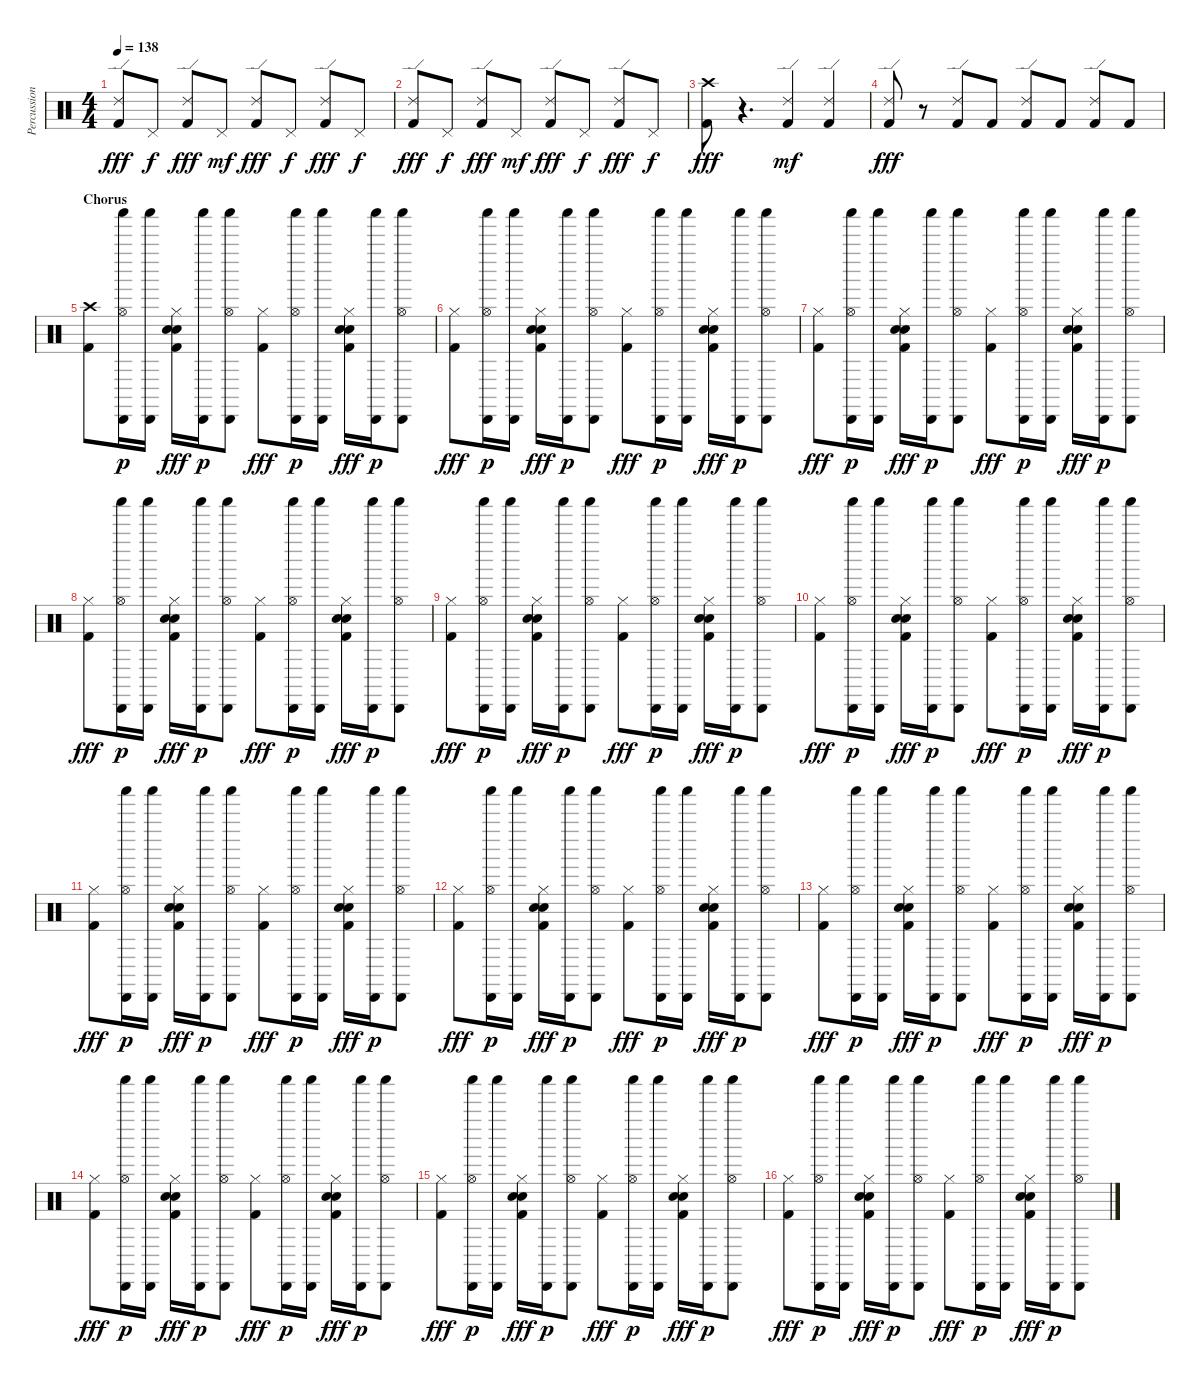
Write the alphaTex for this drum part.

\track ("Percussion" "Percussion") {instrument percussion}
\staff {score}
\articulation defaults
\ts (4 4)
\tempo 138
\clef neutral
\ks c
("Ride (edge) 2" "Kick (hit) 2").8{dy fff} "Pedal Hi-Hat (hit)".8{dy f} ("Ride (edge) 2" "Kick (hit) 2").8{dy fff} "Pedal Hi-Hat (hit)".8{dy mf} ("Ride (edge) 2" "Kick (hit) 2").8{dy fff} "Pedal Hi-Hat (hit)".8{dy f} ("Ride (edge) 2" "Kick (hit) 2").8{dy fff} "Pedal Hi-Hat (hit)".8{dy f} |
("Ride (edge) 2" "Kick (hit) 2").8{dy fff} "Pedal Hi-Hat (hit)".8{dy f} ("Ride (edge) 2" "Kick (hit) 2").8{dy fff} "Pedal Hi-Hat (hit)".8{dy mf} ("Ride (edge) 2" "Kick (hit) 2").8{dy fff} "Pedal Hi-Hat (hit)".8{dy f} ("Ride (edge) 2" "Kick (hit) 2").8{dy fff} "Pedal Hi-Hat (hit)".8{dy f} |
("Kick (hit) 2" "Crash high (hit)").8{dy fff} r.4{d} ("Kick (hit) 2" "Ride (edge) 2").4{dy mf} ("Kick (hit) 2" "Ride (edge) 2").4 |
("Ride (edge) 2" "Kick (hit) 2").8{dy fff} r.8 ("Ride (edge) 2" "Kick (hit) 2").8 "Kick (hit) 2".8 ("Ride (edge) 2" "Kick (hit) 2").8 "Kick (hit) 2".8 ("Ride (edge) 2" "Kick (hit) 2").8 "Kick (hit) 2".8 |
\section ("" "Chorus")
("Crash high (hit)" "Kick (hit) 2").8 ("Cabasa (hit)" "Hi-Hat (open)" "Shaker (hit)").16{dy p} ("Cabasa (hit)" "Shaker (hit)").16 ("Hi-Hat (closed)" "Snare (hit) 2" "Hand Clap (hit)" "Kick (hit) 2").16{dy fff} ("Cabasa (hit)" "Shaker (hit)").16{dy p} ("Cabasa (hit)" "Hi-Hat (open)" "Shaker (hit)").8 ("Hi-Hat (closed)" "Kick (hit) 2").8{dy fff} ("Cabasa (hit)" "Hi-Hat (open)" "Shaker (hit)").16{dy p} ("Cabasa (hit)" "Shaker (hit)").16 ("Hi-Hat (closed)" "Snare (hit) 2" "Hand Clap (hit)" "Kick (hit) 2").16{dy fff} ("Cabasa (hit)" "Shaker (hit)").16{dy p} ("Cabasa (hit)" "Hi-Hat (open)" "Shaker (hit)").8 |
("Hi-Hat (closed)" "Kick (hit) 2").8{dy fff} ("Cabasa (hit)" "Hi-Hat (open)" "Shaker (hit)").16{dy p} ("Cabasa (hit)" "Shaker (hit)").16 ("Hi-Hat (closed)" "Snare (hit) 2" "Hand Clap (hit)" "Kick (hit) 2").16{dy fff} ("Cabasa (hit)" "Shaker (hit)").16{dy p} ("Cabasa (hit)" "Hi-Hat (open)" "Shaker (hit)").8 ("Hi-Hat (closed)" "Kick (hit) 2").8{dy fff} ("Cabasa (hit)" "Hi-Hat (open)" "Shaker (hit)").16{dy p} ("Cabasa (hit)" "Shaker (hit)").16 ("Hi-Hat (closed)" "Snare (hit) 2" "Hand Clap (hit)" "Kick (hit) 2").16{dy fff} ("Cabasa (hit)" "Shaker (hit)").16{dy p} ("Cabasa (hit)" "Hi-Hat (open)" "Shaker (hit)").8 |
("Hi-Hat (closed)" "Kick (hit) 2").8{dy fff} ("Cabasa (hit)" "Hi-Hat (open)" "Shaker (hit)").16{dy p} ("Cabasa (hit)" "Shaker (hit)").16 ("Hi-Hat (closed)" "Snare (hit) 2" "Hand Clap (hit)" "Kick (hit) 2").16{dy fff} ("Cabasa (hit)" "Shaker (hit)").16{dy p} ("Cabasa (hit)" "Hi-Hat (open)" "Shaker (hit)").8 ("Hi-Hat (closed)" "Kick (hit) 2").8{dy fff} ("Cabasa (hit)" "Hi-Hat (open)" "Shaker (hit)").16{dy p} ("Cabasa (hit)" "Shaker (hit)").16 ("Hi-Hat (closed)" "Snare (hit) 2" "Hand Clap (hit)" "Kick (hit) 2").16{dy fff} ("Cabasa (hit)" "Shaker (hit)").16{dy p} ("Cabasa (hit)" "Hi-Hat (open)" "Shaker (hit)").8 |
("Hi-Hat (closed)" "Kick (hit) 2").8{dy fff} ("Cabasa (hit)" "Hi-Hat (open)" "Shaker (hit)").16{dy p} ("Cabasa (hit)" "Shaker (hit)").16 ("Hi-Hat (closed)" "Snare (hit) 2" "Hand Clap (hit)" "Kick (hit) 2").16{dy fff} ("Cabasa (hit)" "Shaker (hit)").16{dy p} ("Cabasa (hit)" "Hi-Hat (open)" "Shaker (hit)").8 ("Hi-Hat (closed)" "Kick (hit) 2").8{dy fff} ("Cabasa (hit)" "Hi-Hat (open)" "Shaker (hit)").16{dy p} ("Cabasa (hit)" "Shaker (hit)").16 ("Hi-Hat (closed)" "Snare (hit) 2" "Hand Clap (hit)" "Kick (hit) 2").16{dy fff} ("Cabasa (hit)" "Shaker (hit)").16{dy p} ("Cabasa (hit)" "Hi-Hat (open)" "Shaker (hit)").8 |
("Hi-Hat (closed)" "Kick (hit) 2").8{dy fff} ("Cabasa (hit)" "Hi-Hat (open)" "Shaker (hit)").16{dy p} ("Cabasa (hit)" "Shaker (hit)").16 ("Hi-Hat (closed)" "Snare (hit) 2" "Hand Clap (hit)" "Kick (hit) 2").16{dy fff} ("Cabasa (hit)" "Shaker (hit)").16{dy p} ("Cabasa (hit)" "Hi-Hat (open)" "Shaker (hit)").8 ("Hi-Hat (closed)" "Kick (hit) 2").8{dy fff} ("Cabasa (hit)" "Hi-Hat (open)" "Shaker (hit)").16{dy p} ("Cabasa (hit)" "Shaker (hit)").16 ("Hi-Hat (closed)" "Snare (hit) 2" "Hand Clap (hit)" "Kick (hit) 2").16{dy fff} ("Cabasa (hit)" "Shaker (hit)").16{dy p} ("Cabasa (hit)" "Hi-Hat (open)" "Shaker (hit)").8 |
("Hi-Hat (closed)" "Kick (hit) 2").8{dy fff} ("Cabasa (hit)" "Hi-Hat (open)" "Shaker (hit)").16{dy p} ("Cabasa (hit)" "Shaker (hit)").16 ("Hi-Hat (closed)" "Snare (hit) 2" "Hand Clap (hit)" "Kick (hit) 2").16{dy fff} ("Cabasa (hit)" "Shaker (hit)").16{dy p} ("Cabasa (hit)" "Hi-Hat (open)" "Shaker (hit)").8 ("Hi-Hat (closed)" "Kick (hit) 2").8{dy fff} ("Cabasa (hit)" "Hi-Hat (open)" "Shaker (hit)").16{dy p} ("Cabasa (hit)" "Shaker (hit)").16 ("Hi-Hat (closed)" "Snare (hit) 2" "Hand Clap (hit)" "Kick (hit) 2").16{dy fff} ("Cabasa (hit)" "Shaker (hit)").16{dy p} ("Cabasa (hit)" "Hi-Hat (open)" "Shaker (hit)").8 |
("Hi-Hat (closed)" "Kick (hit) 2").8{dy fff} ("Cabasa (hit)" "Hi-Hat (open)" "Shaker (hit)").16{dy p} ("Cabasa (hit)" "Shaker (hit)").16 ("Hi-Hat (closed)" "Snare (hit) 2" "Hand Clap (hit)" "Kick (hit) 2").16{dy fff} ("Cabasa (hit)" "Shaker (hit)").16{dy p} ("Cabasa (hit)" "Hi-Hat (open)" "Shaker (hit)").8 ("Hi-Hat (closed)" "Kick (hit) 2").8{dy fff} ("Cabasa (hit)" "Hi-Hat (open)" "Shaker (hit)").16{dy p} ("Cabasa (hit)" "Shaker (hit)").16 ("Hi-Hat (closed)" "Snare (hit) 2" "Hand Clap (hit)" "Kick (hit) 2").16{dy fff} ("Cabasa (hit)" "Shaker (hit)").16{dy p} ("Cabasa (hit)" "Hi-Hat (open)" "Shaker (hit)").8 |
("Hi-Hat (closed)" "Kick (hit) 2").8{dy fff} ("Cabasa (hit)" "Hi-Hat (open)" "Shaker (hit)").16{dy p} ("Cabasa (hit)" "Shaker (hit)").16 ("Hi-Hat (closed)" "Snare (hit) 2" "Hand Clap (hit)" "Kick (hit) 2").16{dy fff} ("Cabasa (hit)" "Shaker (hit)").16{dy p} ("Cabasa (hit)" "Hi-Hat (open)" "Shaker (hit)").8 ("Hi-Hat (closed)" "Kick (hit) 2").8{dy fff} ("Cabasa (hit)" "Hi-Hat (open)" "Shaker (hit)").16{dy p} ("Cabasa (hit)" "Shaker (hit)").16 ("Hi-Hat (closed)" "Snare (hit) 2" "Hand Clap (hit)" "Kick (hit) 2").16{dy fff} ("Cabasa (hit)" "Shaker (hit)").16{dy p} ("Cabasa (hit)" "Hi-Hat (open)" "Shaker (hit)").8 |
("Hi-Hat (closed)" "Kick (hit) 2").8{dy fff} ("Cabasa (hit)" "Hi-Hat (open)" "Shaker (hit)").16{dy p} ("Cabasa (hit)" "Shaker (hit)").16 ("Hi-Hat (closed)" "Snare (hit) 2" "Hand Clap (hit)" "Kick (hit) 2").16{dy fff} ("Cabasa (hit)" "Shaker (hit)").16{dy p} ("Cabasa (hit)" "Hi-Hat (open)" "Shaker (hit)").8 ("Hi-Hat (closed)" "Kick (hit) 2").8{dy fff} ("Cabasa (hit)" "Hi-Hat (open)" "Shaker (hit)").16{dy p} ("Cabasa (hit)" "Shaker (hit)").16 ("Hi-Hat (closed)" "Snare (hit) 2" "Hand Clap (hit)" "Kick (hit) 2").16{dy fff} ("Cabasa (hit)" "Shaker (hit)").16{dy p} ("Cabasa (hit)" "Hi-Hat (open)" "Shaker (hit)").8 |
("Hi-Hat (closed)" "Kick (hit) 2").8{dy fff} ("Cabasa (hit)" "Hi-Hat (open)" "Shaker (hit)").16{dy p} ("Cabasa (hit)" "Shaker (hit)").16 ("Hi-Hat (closed)" "Snare (hit) 2" "Hand Clap (hit)" "Kick (hit) 2").16{dy fff} ("Cabasa (hit)" "Shaker (hit)").16{dy p} ("Cabasa (hit)" "Hi-Hat (open)" "Shaker (hit)").8 ("Hi-Hat (closed)" "Kick (hit) 2").8{dy fff} ("Cabasa (hit)" "Hi-Hat (open)" "Shaker (hit)").16{dy p} ("Cabasa (hit)" "Shaker (hit)").16 ("Hi-Hat (closed)" "Snare (hit) 2" "Hand Clap (hit)" "Kick (hit) 2").16{dy fff} ("Cabasa (hit)" "Shaker (hit)").16{dy p} ("Cabasa (hit)" "Hi-Hat (open)" "Shaker (hit)").8 |
("Hi-Hat (closed)" "Kick (hit) 2").8{dy fff} ("Cabasa (hit)" "Hi-Hat (open)" "Shaker (hit)").16{dy p} ("Cabasa (hit)" "Shaker (hit)").16 ("Hi-Hat (closed)" "Snare (hit) 2" "Hand Clap (hit)" "Kick (hit) 2").16{dy fff} ("Cabasa (hit)" "Shaker (hit)").16{dy p} ("Cabasa (hit)" "Hi-Hat (open)" "Shaker (hit)").8 ("Hi-Hat (closed)" "Kick (hit) 2").8{dy fff} ("Cabasa (hit)" "Hi-Hat (open)" "Shaker (hit)").16{dy p} ("Cabasa (hit)" "Shaker (hit)").16 ("Hi-Hat (closed)" "Snare (hit) 2" "Hand Clap (hit)" "Kick (hit) 2").16{dy fff} ("Cabasa (hit)" "Shaker (hit)").16{dy p} ("Cabasa (hit)" "Hi-Hat (open)" "Shaker (hit)").8 |
("Hi-Hat (closed)" "Kick (hit) 2").8{dy fff} ("Cabasa (hit)" "Hi-Hat (open)" "Shaker (hit)").16{dy p} ("Cabasa (hit)" "Shaker (hit)").16 ("Hi-Hat (closed)" "Snare (hit) 2" "Hand Clap (hit)" "Kick (hit) 2").16{dy fff} ("Cabasa (hit)" "Shaker (hit)").16{dy p} ("Cabasa (hit)" "Hi-Hat (open)" "Shaker (hit)").8 ("Hi-Hat (closed)" "Kick (hit) 2").8{dy fff} ("Cabasa (hit)" "Hi-Hat (open)" "Shaker (hit)").16{dy p} ("Cabasa (hit)" "Shaker (hit)").16 ("Hi-Hat (closed)" "Snare (hit) 2" "Hand Clap (hit)" "Kick (hit) 2").16{dy fff} ("Cabasa (hit)" "Shaker (hit)").16{dy p} ("Cabasa (hit)" "Hi-Hat (open)" "Shaker (hit)").8
